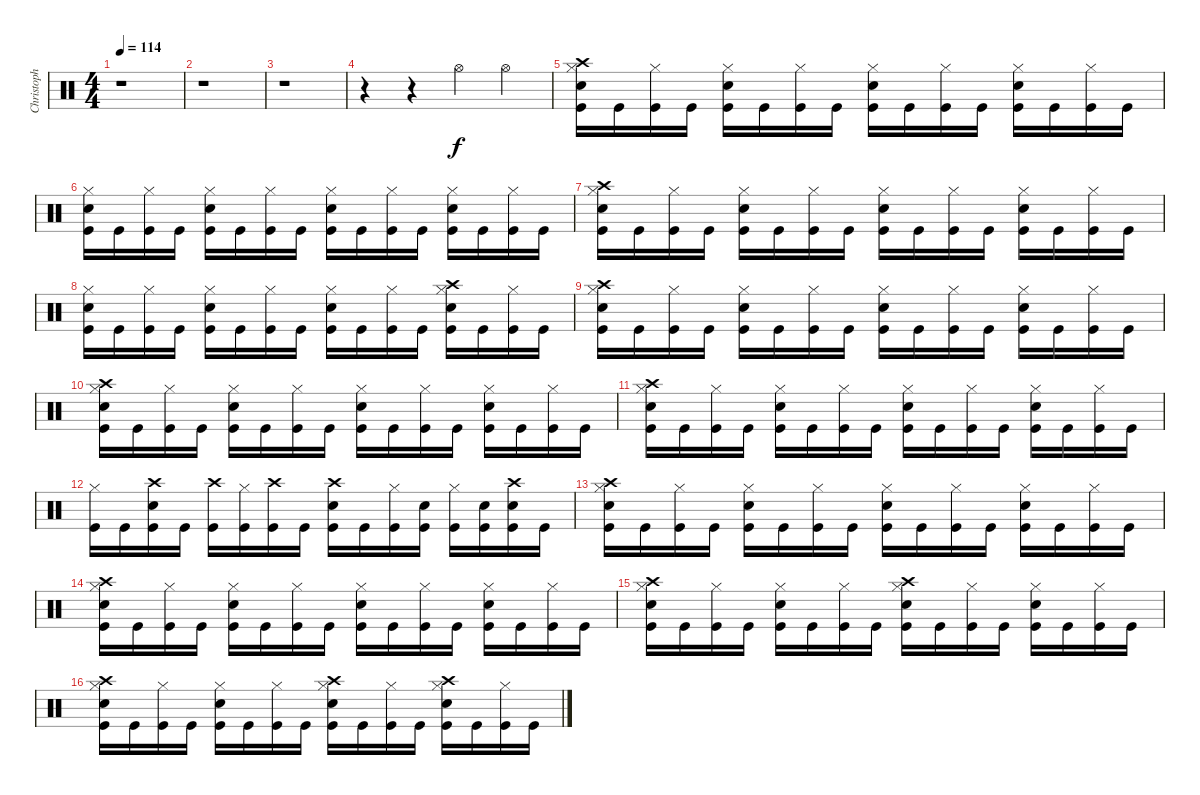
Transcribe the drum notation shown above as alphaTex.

\track ("Christoph - Drums" "Christoph ") {instrument percussion}
\staff {score}
\articulation defaults
\ts (4 4)
\tempo 114
\clef neutral
\ks c
r.1{dy mp} |
r.1 |
r.1 |
r.4 r.4 "Hi-Hat (open)".4{dy f} "Hi-Hat (open)".4 |
("Crash high (hit)" "Hi-Hat (closed)" "Snare (hit) 2" "Kick (hit)").16 "Kick (hit)".16 ("Hi-Hat (closed)" "Kick (hit)").16 "Kick (hit)".16 ("Hi-Hat (closed)" "Snare (hit) 2" "Kick (hit)").16 "Kick (hit)".16 ("Hi-Hat (closed)" "Kick (hit)").16 "Kick (hit)".16 ("Hi-Hat (closed)" "Snare (hit) 2" "Kick (hit)").16 "Kick (hit)".16 ("Hi-Hat (closed)" "Kick (hit)").16 "Kick (hit)".16 ("Hi-Hat (closed)" "Snare (hit) 2" "Kick (hit)").16 "Kick (hit)".16 ("Hi-Hat (closed)" "Kick (hit)").16 "Kick (hit)".16 |
("Hi-Hat (closed)" "Snare (hit) 2" "Kick (hit)").16 "Kick (hit)".16 ("Hi-Hat (closed)" "Kick (hit)").16 "Kick (hit)".16 ("Hi-Hat (closed)" "Snare (hit) 2" "Kick (hit)").16 "Kick (hit)".16 ("Hi-Hat (closed)" "Kick (hit)").16 "Kick (hit)".16 ("Hi-Hat (closed)" "Snare (hit) 2" "Kick (hit)").16 "Kick (hit)".16 ("Hi-Hat (closed)" "Kick (hit)").16 "Kick (hit)".16 ("Hi-Hat (closed)" "Snare (hit) 2" "Kick (hit)").16 "Kick (hit)".16 ("Hi-Hat (closed)" "Kick (hit)").16 "Kick (hit)".16 |
("Crash high (hit)" "Hi-Hat (closed)" "Snare (hit) 2" "Kick (hit)").16 "Kick (hit)".16 ("Hi-Hat (closed)" "Kick (hit)").16 "Kick (hit)".16 ("Hi-Hat (closed)" "Snare (hit) 2" "Kick (hit)").16 "Kick (hit)".16 ("Hi-Hat (closed)" "Kick (hit)").16 "Kick (hit)".16 ("Hi-Hat (closed)" "Snare (hit) 2" "Kick (hit)").16 "Kick (hit)".16 ("Hi-Hat (closed)" "Kick (hit)").16 "Kick (hit)".16 ("Hi-Hat (closed)" "Snare (hit) 2" "Kick (hit)").16 "Kick (hit)".16 ("Hi-Hat (closed)" "Kick (hit)").16 "Kick (hit)".16 |
("Hi-Hat (closed)" "Snare (hit) 2" "Kick (hit)").16 "Kick (hit)".16 ("Hi-Hat (closed)" "Kick (hit)").16 "Kick (hit)".16 ("Hi-Hat (closed)" "Snare (hit) 2" "Kick (hit)").16 "Kick (hit)".16 ("Hi-Hat (closed)" "Kick (hit)").16 "Kick (hit)".16 ("Hi-Hat (closed)" "Snare (hit) 2" "Kick (hit)").16 "Kick (hit)".16 ("Hi-Hat (closed)" "Kick (hit)").16 "Kick (hit)".16 ("Crash high (hit)" "Hi-Hat (closed)" "Snare (hit) 2" "Kick (hit)").16 "Kick (hit)".16 ("Hi-Hat (closed)" "Kick (hit)").16 "Kick (hit)".16 |
("Crash high (hit)" "Hi-Hat (closed)" "Snare (hit) 2" "Kick (hit)").16 "Kick (hit)".16 ("Hi-Hat (closed)" "Kick (hit)").16 "Kick (hit)".16 ("Hi-Hat (closed)" "Snare (hit) 2" "Kick (hit)").16 "Kick (hit)".16 ("Hi-Hat (closed)" "Kick (hit)").16 "Kick (hit)".16 ("Hi-Hat (closed)" "Snare (hit) 2" "Kick (hit)").16 "Kick (hit)".16 ("Hi-Hat (closed)" "Kick (hit)").16 "Kick (hit)".16 ("Hi-Hat (closed)" "Snare (hit) 2" "Kick (hit)").16 "Kick (hit)".16 ("Hi-Hat (closed)" "Kick (hit)").16 "Kick (hit)".16 |
("Crash high (hit)" "Hi-Hat (closed)" "Snare (hit) 2" "Kick (hit)").16 "Kick (hit)".16 ("Hi-Hat (closed)" "Kick (hit)").16 "Kick (hit)".16 ("Hi-Hat (closed)" "Snare (hit) 2" "Kick (hit)").16 "Kick (hit)".16 ("Hi-Hat (closed)" "Kick (hit)").16 "Kick (hit)".16 ("Hi-Hat (closed)" "Snare (hit) 2" "Kick (hit)").16 "Kick (hit)".16 ("Hi-Hat (closed)" "Kick (hit)").16 "Kick (hit)".16 ("Hi-Hat (closed)" "Snare (hit) 2" "Kick (hit)").16 "Kick (hit)".16 ("Hi-Hat (closed)" "Kick (hit)").16 "Kick (hit)".16 |
("Crash high (hit)" "Hi-Hat (closed)" "Snare (hit) 2" "Kick (hit)").16 "Kick (hit)".16 ("Hi-Hat (closed)" "Kick (hit)").16 "Kick (hit)".16 ("Hi-Hat (closed)" "Snare (hit) 2" "Kick (hit)").16 "Kick (hit)".16 ("Hi-Hat (closed)" "Kick (hit)").16 "Kick (hit)".16 ("Hi-Hat (closed)" "Snare (hit) 2" "Kick (hit)").16 "Kick (hit)".16 ("Hi-Hat (closed)" "Kick (hit)").16 "Kick (hit)".16 ("Hi-Hat (closed)" "Snare (hit) 2" "Kick (hit)").16 "Kick (hit)".16 ("Hi-Hat (closed)" "Kick (hit)").16 "Kick (hit)".16 |
("Hi-Hat (closed)" "Kick (hit)").16 "Kick (hit)".16 ("Crash high (hit)" "Snare (hit) 2" "Kick (hit)").16 "Kick (hit)".16 ("Crash high (hit)" "Kick (hit)").16 ("Hi-Hat (closed)" "Kick (hit)").16 ("Crash high (hit)" "Kick (hit)").16 "Kick (hit)".16 ("Crash high (hit)" "Snare (hit) 2" "Kick (hit)").16 "Kick (hit)".16 ("Hi-Hat (closed)" "Kick (hit)").16 ("Snare (hit) 2" "Kick (hit)").16 ("Hi-Hat (closed)" "Kick (hit)").16 ("Snare (hit) 2" "Kick (hit)").16 ("Crash high (hit)" "Snare (hit) 2" "Kick (hit)").16 "Kick (hit)".16 |
("Crash high (hit)" "Hi-Hat (closed)" "Snare (hit) 2" "Kick (hit)").16 "Kick (hit)".16 ("Hi-Hat (closed)" "Kick (hit)").16 "Kick (hit)".16 ("Hi-Hat (closed)" "Snare (hit) 2" "Kick (hit)").16 "Kick (hit)".16 ("Hi-Hat (closed)" "Kick (hit)").16 "Kick (hit)".16 ("Hi-Hat (closed)" "Snare (hit) 2" "Kick (hit)").16 "Kick (hit)".16 ("Hi-Hat (closed)" "Kick (hit)").16 "Kick (hit)".16 ("Hi-Hat (closed)" "Snare (hit) 2" "Kick (hit)").16 "Kick (hit)".16 ("Hi-Hat (closed)" "Kick (hit)").16 "Kick (hit)".16 |
("Crash high (hit)" "Hi-Hat (closed)" "Snare (hit) 2" "Kick (hit)").16 "Kick (hit)".16 ("Hi-Hat (closed)" "Kick (hit)").16 "Kick (hit)".16 ("Hi-Hat (closed)" "Snare (hit) 2" "Kick (hit)").16 "Kick (hit)".16 ("Hi-Hat (closed)" "Kick (hit)").16 "Kick (hit)".16 ("Hi-Hat (closed)" "Snare (hit) 2" "Kick (hit)").16 "Kick (hit)".16 ("Hi-Hat (closed)" "Kick (hit)").16 "Kick (hit)".16 ("Hi-Hat (closed)" "Snare (hit) 2" "Kick (hit)").16 "Kick (hit)".16 ("Hi-Hat (closed)" "Kick (hit)").16 "Kick (hit)".16 |
("Crash high (hit)" "Hi-Hat (closed)" "Snare (hit) 2" "Kick (hit)").16 "Kick (hit)".16 ("Hi-Hat (closed)" "Kick (hit)").16 "Kick (hit)".16 ("Hi-Hat (closed)" "Snare (hit) 2" "Kick (hit)").16 "Kick (hit)".16 ("Hi-Hat (closed)" "Kick (hit)").16 "Kick (hit)".16 ("Crash high (hit)" "Hi-Hat (closed)" "Snare (hit) 2" "Kick (hit)").16 "Kick (hit)".16 ("Hi-Hat (closed)" "Kick (hit)").16 "Kick (hit)".16 ("Hi-Hat (closed)" "Snare (hit) 2" "Kick (hit)").16 "Kick (hit)".16 ("Hi-Hat (closed)" "Kick (hit)").16 "Kick (hit)".16 |
("Crash high (hit)" "Hi-Hat (closed)" "Snare (hit) 2" "Kick (hit)").16 "Kick (hit)".16 ("Hi-Hat (closed)" "Kick (hit)").16 "Kick (hit)".16 ("Hi-Hat (closed)" "Snare (hit) 2" "Kick (hit)").16 "Kick (hit)".16 ("Hi-Hat (closed)" "Kick (hit)").16 "Kick (hit)".16 ("Crash high (hit)" "Hi-Hat (closed)" "Snare (hit) 2" "Kick (hit)").16 "Kick (hit)".16 ("Hi-Hat (closed)" "Kick (hit)").16 "Kick (hit)".16 ("Crash high (hit)" "Hi-Hat (closed)" "Snare (hit) 2" "Kick (hit)").16 "Kick (hit)".16 ("Hi-Hat (closed)" "Kick (hit)").16 "Kick (hit)".16
